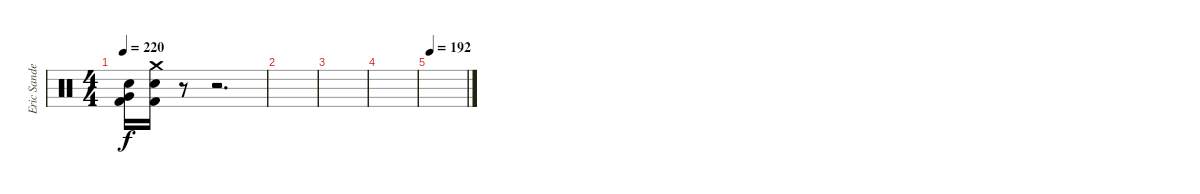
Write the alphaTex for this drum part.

\track ("Eric Sanden" "Eric Sande") {instrument percussion}
\staff {score}
\articulation defaults
\ts (4 4)
\tempo 220
\clef neutral
\ks c
("Very Low Tom (hit)" "Snare (hit) 2" "Kick (hit) 2").16{dy f} ("Crash medium (hit)" "Snare (hit) 2" "Kick (hit) 2").16 r.8 r.2{d} |
|
|
|
\tempo 192
